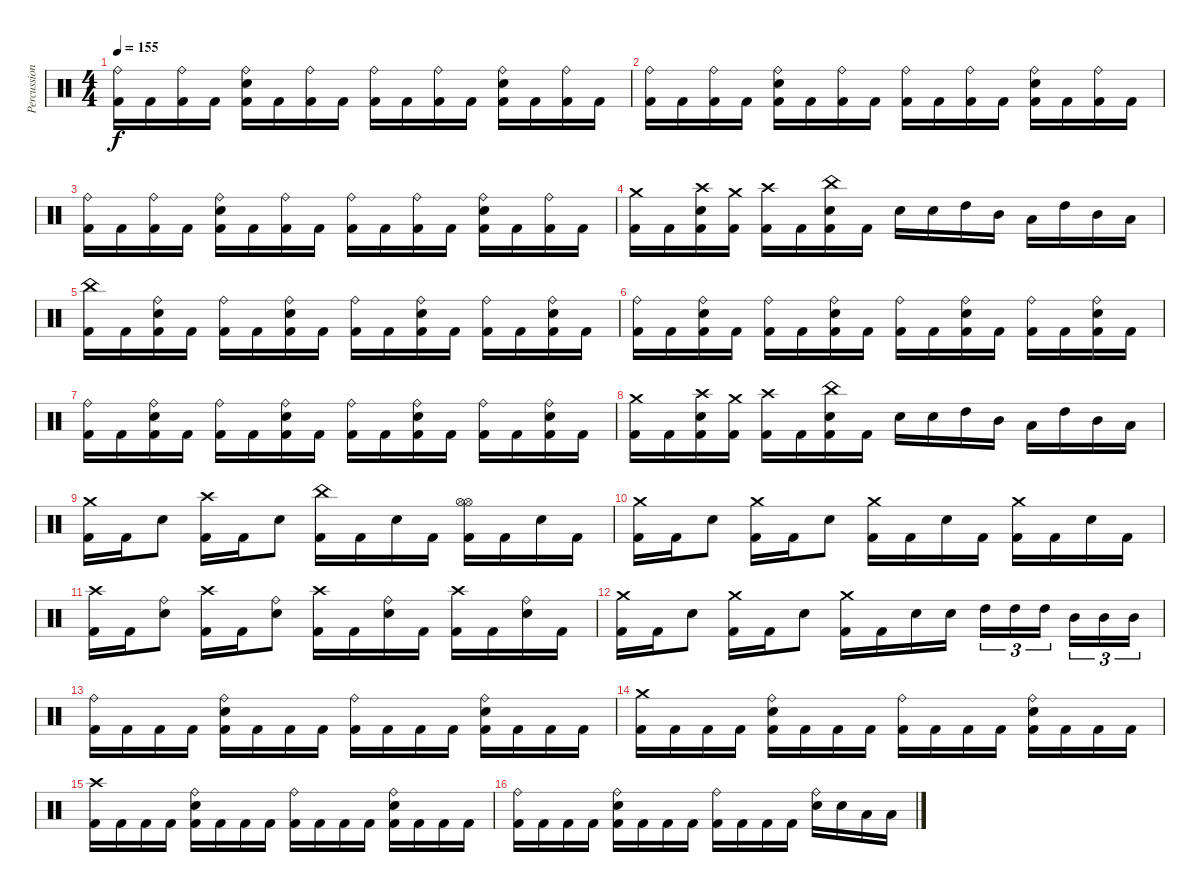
\track ("Percussions" "Percussion") {instrument percussion}
\staff {score}
\articulation defaults
\ts (4 4)
\tempo 155
\clef neutral
\ks c
("Ride (bell)" "Kick (hit) 2").16{dy f} "Kick (hit) 2".16 ("Ride (bell)" "Kick (hit) 2").16 "Kick (hit) 2".16 ("Ride (bell)" "Electric Snare (hit)" "Kick (hit) 2").16 "Kick (hit) 2".16 ("Ride (bell)" "Kick (hit) 2").16 "Kick (hit) 2".16 ("Ride (bell)" "Kick (hit) 2").16 "Kick (hit) 2".16 ("Ride (bell)" "Kick (hit) 2").16 "Kick (hit) 2".16 ("Ride (bell)" "Electric Snare (hit)" "Kick (hit) 2").16 "Kick (hit) 2".16 ("Ride (bell)" "Kick (hit) 2").16 "Kick (hit) 2".16 |
("Ride (bell)" "Kick (hit) 2").16 "Kick (hit) 2".16 ("Ride (bell)" "Kick (hit) 2").16 "Kick (hit) 2".16 ("Ride (bell)" "Electric Snare (hit)" "Kick (hit) 2").16 "Kick (hit) 2".16 ("Ride (bell)" "Kick (hit) 2").16 "Kick (hit) 2".16 ("Ride (bell)" "Kick (hit) 2").16 "Kick (hit) 2".16 ("Ride (bell)" "Kick (hit) 2").16 "Kick (hit) 2".16 ("Ride (bell)" "Electric Snare (hit)" "Kick (hit) 2").16 "Kick (hit) 2".16 ("Ride (bell)" "Kick (hit) 2").16 "Kick (hit) 2".16 |
("Ride (bell)" "Kick (hit) 2").16 "Kick (hit) 2".16 ("Ride (bell)" "Kick (hit) 2").16 "Kick (hit) 2".16 ("Ride (bell)" "Electric Snare (hit)" "Kick (hit) 2").16 "Kick (hit) 2".16 ("Ride (bell)" "Kick (hit) 2").16 "Kick (hit) 2".16 ("Ride (bell)" "Kick (hit) 2").16 "Kick (hit) 2".16 ("Ride (bell)" "Kick (hit) 2").16 "Kick (hit) 2".16 ("Ride (bell)" "Electric Snare (hit)" "Kick (hit) 2").16 "Kick (hit) 2".16 ("Ride (bell)" "Kick (hit) 2").16 "Kick (hit) 2".16 |
("Crash medium (hit)" "Kick (hit) 2").16 "Kick (hit) 2".16 ("Crash high (hit)" "Electric Snare (hit)" "Kick (hit) 2").16 ("Crash medium (hit)" "Kick (hit) 2").16 ("Crash high (hit)" "Kick (hit) 2").16 "Kick (hit) 2".16 ("China (hit)" "Electric Snare (hit)" "Kick (hit) 2").16 "Kick (hit) 2".16 "Electric Snare (hit)".16 "Electric Snare (hit)".16 "High Tom (hit)".16 "Mid Tom (hit)".16 "Low Tom (hit)".16 "High Tom (hit)".16 "Mid Tom (hit)".16 "Low Tom (hit)".16 |
("China (hit)" "Kick (hit) 2").16 "Kick (hit) 2".16 ("Ride (bell)" "Electric Snare (hit)" "Kick (hit) 2").16 "Kick (hit) 2".16 ("Ride (bell)" "Kick (hit) 2").16 "Kick (hit) 2".16 ("Ride (bell)" "Electric Snare (hit)" "Kick (hit) 2").16 "Kick (hit) 2".16 ("Ride (bell)" "Kick (hit) 2").16 "Kick (hit) 2".16 ("Ride (bell)" "Electric Snare (hit)" "Kick (hit) 2").16 "Kick (hit) 2".16 ("Ride (bell)" "Kick (hit) 2").16 "Kick (hit) 2".16 ("Ride (bell)" "Electric Snare (hit)" "Kick (hit) 2").16 "Kick (hit) 2".16 |
("Ride (bell)" "Kick (hit) 2").16 "Kick (hit) 2".16 ("Ride (bell)" "Electric Snare (hit)" "Kick (hit) 2").16 "Kick (hit) 2".16 ("Ride (bell)" "Kick (hit) 2").16 "Kick (hit) 2".16 ("Ride (bell)" "Electric Snare (hit)" "Kick (hit) 2").16 "Kick (hit) 2".16 ("Ride (bell)" "Kick (hit) 2").16 "Kick (hit) 2".16 ("Ride (bell)" "Electric Snare (hit)" "Kick (hit) 2").16 "Kick (hit) 2".16 ("Ride (bell)" "Kick (hit) 2").16 "Kick (hit) 2".16 ("Ride (bell)" "Electric Snare (hit)" "Kick (hit) 2").16 "Kick (hit) 2".16 |
("Ride (bell)" "Kick (hit) 2").16 "Kick (hit) 2".16 ("Ride (bell)" "Electric Snare (hit)" "Kick (hit) 2").16 "Kick (hit) 2".16 ("Ride (bell)" "Kick (hit) 2").16 "Kick (hit) 2".16 ("Ride (bell)" "Electric Snare (hit)" "Kick (hit) 2").16 "Kick (hit) 2".16 ("Ride (bell)" "Kick (hit) 2").16 "Kick (hit) 2".16 ("Ride (bell)" "Electric Snare (hit)" "Kick (hit) 2").16 "Kick (hit) 2".16 ("Ride (bell)" "Kick (hit) 2").16 "Kick (hit) 2".16 ("Ride (bell)" "Electric Snare (hit)" "Kick (hit) 2").16 "Kick (hit) 2".16 |
("Crash medium (hit)" "Kick (hit) 2").16 "Kick (hit) 2".16 ("Crash high (hit)" "Electric Snare (hit)" "Kick (hit) 2").16 ("Crash medium (hit)" "Kick (hit) 2").16 ("Crash high (hit)" "Kick (hit) 2").16 "Kick (hit) 2".16 ("China (hit)" "Electric Snare (hit)" "Kick (hit) 2").16 "Kick (hit) 2".16 "Electric Snare (hit)".16 "Electric Snare (hit)".16 "High Tom (hit)".16 "Mid Tom (hit)".16 "Low Tom (hit)".16 "High Tom (hit)".16 "Mid Tom (hit)".16 "Low Tom (hit)".16 |
("Crash medium (hit)" "Kick (hit) 2").16 "Kick (hit) 2".16 "Electric Snare (hit)".8 ("Crash high (hit)" "Kick (hit) 2").16 "Kick (hit) 2".16 "Electric Snare (hit)".8 ("China (hit)" "Kick (hit) 2").16 "Kick (hit) 2".16 "Electric Snare (hit)".16 "Kick (hit) 2".16 ("Hi-Hat (open)" "Hi-Hat (open)" "Kick (hit) 2").16 "Kick (hit) 2".16 "Electric Snare (hit)".16 "Kick (hit) 2".16 |
("Crash medium (hit)" "Kick (hit) 2").16 "Kick (hit) 2".16 "Electric Snare (hit)".8 ("Crash medium (hit)" "Kick (hit) 2").16 "Kick (hit) 2".16 "Electric Snare (hit)".8 ("Crash medium (hit)" "Kick (hit) 2").16 "Kick (hit) 2".16 "Electric Snare (hit)".16 "Kick (hit) 2".16 ("Crash medium (hit)" "Kick (hit) 2").16 "Kick (hit) 2".16 "Electric Snare (hit)".16 "Kick (hit) 2".16 |
("Crash high (hit)" "Kick (hit) 2").16 "Kick (hit) 2".16 ("Ride (bell)" "Electric Snare (hit)").8 ("Crash high (hit)" "Kick (hit) 2").16 "Kick (hit) 2".16 ("Ride (bell)" "Electric Snare (hit)").8 ("Crash high (hit)" "Kick (hit) 2").16 "Kick (hit) 2".16 ("Ride (bell)" "Electric Snare (hit)").16 "Kick (hit) 2".16 ("Crash high (hit)" "Kick (hit) 2").16 "Kick (hit) 2".16 ("Ride (bell)" "Electric Snare (hit)").16 "Kick (hit) 2".16 |
("Crash medium (hit)" "Kick (hit) 2").16 "Kick (hit) 2".16 "Electric Snare (hit)".8 ("Crash medium (hit)" "Kick (hit) 2").16 "Kick (hit) 2".16 "Electric Snare (hit)".8 ("Crash medium (hit)" "Kick (hit) 2").16 "Kick (hit) 2".16 "Electric Snare (hit)".16 "Electric Snare (hit)".16 "High Tom (hit)".16{tu (3 2)} "High Tom (hit)".16{tu (3 2)} "High Tom (hit)".16{tu (3 2)} "Mid Tom (hit)".16{tu (3 2)} "Mid Tom (hit)".16{tu (3 2)} "Mid Tom (hit)".16{tu (3 2)} |
("Ride (bell)" "Kick (hit) 2").16 "Kick (hit) 2".16 "Kick (hit) 2".16 "Kick (hit) 2".16 ("Ride (bell)" "Electric Snare (hit)" "Kick (hit) 2").16 "Kick (hit) 2".16 "Kick (hit) 2".16 "Kick (hit) 2".16 ("Ride (bell)" "Kick (hit) 2").16 "Kick (hit) 2".16 "Kick (hit) 2".16 "Kick (hit) 2".16 ("Ride (bell)" "Electric Snare (hit)" "Kick (hit) 2").16 "Kick (hit) 2".16 "Kick (hit) 2".16 "Kick (hit) 2".16 |
("Crash medium (hit)" "Kick (hit) 2").16 "Kick (hit) 2".16 "Kick (hit) 2".16 "Kick (hit) 2".16 ("Ride (bell)" "Electric Snare (hit)" "Kick (hit) 2").16 "Kick (hit) 2".16 "Kick (hit) 2".16 "Kick (hit) 2".16 ("Ride (bell)" "Kick (hit) 2").16 "Kick (hit) 2".16 "Kick (hit) 2".16 "Kick (hit) 2".16 ("Ride (bell)" "Electric Snare (hit)" "Kick (hit) 2").16 "Kick (hit) 2".16 "Kick (hit) 2".16 "Kick (hit) 2".16 |
("Crash high (hit)" "Kick (hit) 2").16 "Kick (hit) 2".16 "Kick (hit) 2".16 "Kick (hit) 2".16 ("Ride (bell)" "Electric Snare (hit)" "Kick (hit) 2").16 "Kick (hit) 2".16 "Kick (hit) 2".16 "Kick (hit) 2".16 ("Ride (bell)" "Kick (hit) 2").16 "Kick (hit) 2".16 "Kick (hit) 2".16 "Kick (hit) 2".16 ("Ride (bell)" "Electric Snare (hit)" "Kick (hit) 2").16 "Kick (hit) 2".16 "Kick (hit) 2".16 "Kick (hit) 2".16 |
("Ride (bell)" "Kick (hit) 2").16 "Kick (hit) 2".16 "Kick (hit) 2".16 "Kick (hit) 2".16 ("Ride (bell)" "Electric Snare (hit)" "Kick (hit) 2").16 "Kick (hit) 2".16 "Kick (hit) 2".16 "Kick (hit) 2".16 ("Ride (bell)" "Kick (hit) 2").16 "Kick (hit) 2".16 "Kick (hit) 2".16 "Kick (hit) 2".16 ("Ride (bell)" "Electric Snare (hit)").16 "Electric Snare (hit)".16 "Low Tom (hit)".16 "Low Tom (hit)".16
